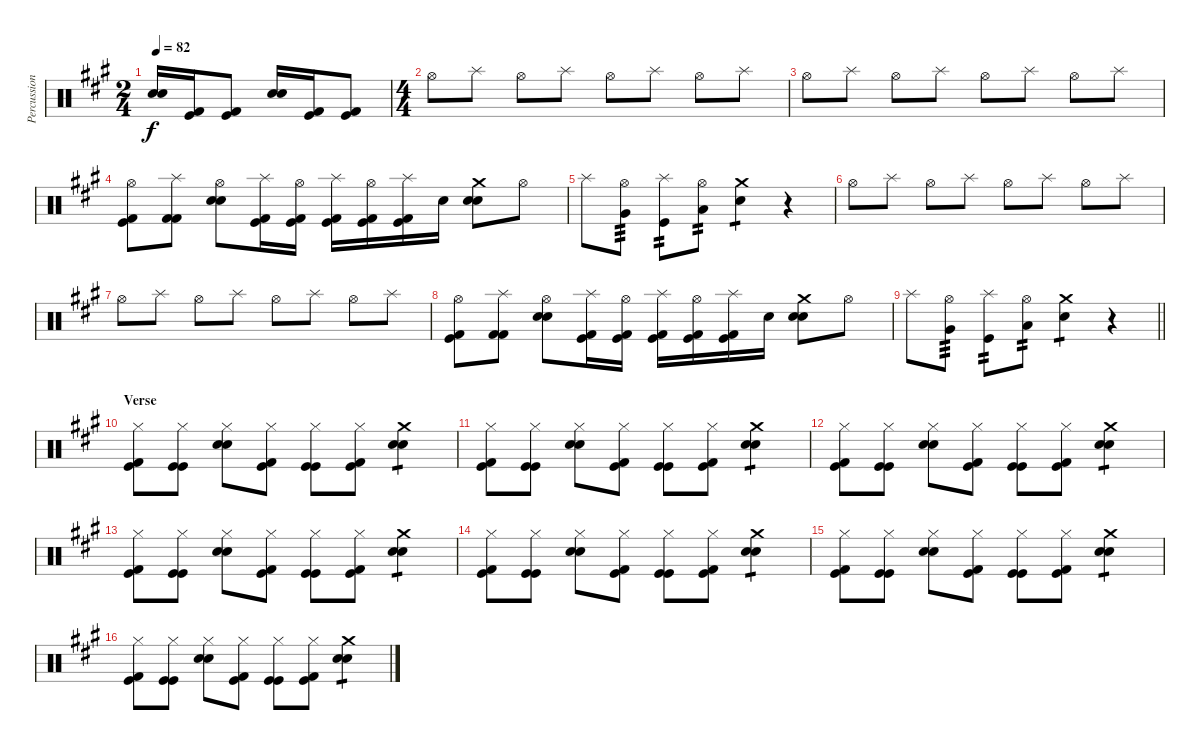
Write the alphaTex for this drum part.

\track ("Percussion" "Percussion") {instrument percussion}
\staff {score}
\articulation defaults
\ts (2 4)
\tempo 82
\clef neutral
\ks a
("Electric Snare (hit)" "Snare (hit) 2").16{dy f} ("Kick (hit) 2" "Kick (hit)").16 ("Kick (hit) 2" "Kick (hit)").8 ("Electric Snare (hit)" "Snare (hit) 2").16 ("Kick (hit) 2" "Kick (hit)").16 ("Kick (hit) 2" "Kick (hit)").8 |
\ts (4 4)
"Hi-Hat (open)".8 "Splash (hit)".8 "Hi-Hat (open)".8 "Splash (hit)".8 "Hi-Hat (open)".8 "Splash (hit)".8 "Hi-Hat (open)".8 "Splash (hit)".8 |
"Hi-Hat (open)".8 "Splash (hit)".8 "Hi-Hat (open)".8 "Splash (hit)".8 "Hi-Hat (open)".8 "Splash (hit)".8 "Hi-Hat (open)".8 "Splash (hit)".8 |
("Hi-Hat (open)" "Kick (hit) 2" "Kick (hit)").8 ("Splash (hit)" "Kick (hit) 2" "Kick (hit) 2").8 ("Hi-Hat (open)" "Electric Snare (hit)" "Snare (hit) 2").8 ("Splash (hit)" "Kick (hit) 2" "Kick (hit)").16 ("Hi-Hat (open)" "Kick (hit) 2" "Kick (hit)").16 ("Splash (hit)" "Kick (hit) 2" "Kick (hit)").16 ("Hi-Hat (open)" "Kick (hit) 2" "Kick (hit)").16 ("Splash (hit)" "Kick (hit) 2" "Kick (hit)").16 "Snare (hit)".16 ("Crash medium (hit)" "Electric Snare (hit)" "Snare (hit) 2").8 "Hi-Hat (open)".8 |
"Splash (hit)".8 ("Hi-Hat (open)" "Very Low Tom (hit)").8{tp 3} ("Splash (hit)" "Kick (hit)").8{tp 2} ("Hi-Hat (open)" "Low Floor Tom (hit)").8{tp 2} ("Crash medium (hit)" "Electric Snare (hit)").4{tp 1} r.4 |
"Hi-Hat (open)".8 "Splash (hit)".8 "Hi-Hat (open)".8 "Splash (hit)".8 "Hi-Hat (open)".8 "Splash (hit)".8 "Hi-Hat (open)".8 "Splash (hit)".8 |
"Hi-Hat (open)".8 "Splash (hit)".8 "Hi-Hat (open)".8 "Splash (hit)".8 "Hi-Hat (open)".8 "Splash (hit)".8 "Hi-Hat (open)".8 "Splash (hit)".8 |
("Hi-Hat (open)" "Kick (hit) 2" "Kick (hit)").8 ("Splash (hit)" "Kick (hit) 2" "Kick (hit) 2").8 ("Hi-Hat (open)" "Electric Snare (hit)" "Snare (hit) 2").8 ("Splash (hit)" "Kick (hit) 2" "Kick (hit)").16 ("Hi-Hat (open)" "Kick (hit) 2" "Kick (hit)").16 ("Splash (hit)" "Kick (hit) 2" "Kick (hit)").16 ("Hi-Hat (open)" "Kick (hit) 2" "Kick (hit)").16 ("Splash (hit)" "Kick (hit) 2" "Kick (hit)").16 "Snare (hit)".16 ("Crash medium (hit)" "Electric Snare (hit)" "Snare (hit) 2").8 "Hi-Hat (open)".8 |
\barLineRight lightlight "Splash (hit)".8
("Hi-Hat (open)" "Very Low Tom (hit)").8{tp 3} ("Splash (hit)" "Kick (hit)").8{tp 2} ("Hi-Hat (open)" "Low Floor Tom (hit)").8{tp 2} ("Crash medium (hit)" "Electric Snare (hit)").4{tp 1} r.4 |
\section ("" "Verse")
("Hi-Hat (closed)" "Kick (hit)" "Kick (hit) 2").8 ("Hi-Hat (closed)" "Kick (hit)" "Kick (hit)").8 ("Hi-Hat (closed)" "Electric Snare (hit)" "Snare (hit) 2").8 ("Hi-Hat (closed)" "Kick (hit)" "Kick (hit) 2").8 ("Hi-Hat (closed)" "Kick (hit)" "Kick (hit)").8 ("Hi-Hat (closed)" "Kick (hit)" "Kick (hit) 2").8 ("Crash medium (hit)" "Electric Snare (hit)" "Snare (hit) 2").4{tp 1} |
("Hi-Hat (closed)" "Kick (hit)" "Kick (hit) 2").8 ("Hi-Hat (closed)" "Kick (hit)" "Kick (hit)").8 ("Hi-Hat (closed)" "Electric Snare (hit)" "Snare (hit) 2").8 ("Hi-Hat (closed)" "Kick (hit)" "Kick (hit) 2").8 ("Hi-Hat (closed)" "Kick (hit)" "Kick (hit)").8 ("Hi-Hat (closed)" "Kick (hit)" "Kick (hit) 2").8 ("Crash medium (hit)" "Electric Snare (hit)" "Snare (hit) 2").4{tp 1} |
("Hi-Hat (closed)" "Kick (hit)" "Kick (hit) 2").8 ("Hi-Hat (closed)" "Kick (hit)" "Kick (hit)").8 ("Hi-Hat (closed)" "Electric Snare (hit)" "Snare (hit) 2").8 ("Hi-Hat (closed)" "Kick (hit)" "Kick (hit) 2").8 ("Hi-Hat (closed)" "Kick (hit)" "Kick (hit)").8 ("Hi-Hat (closed)" "Kick (hit)" "Kick (hit) 2").8 ("Crash medium (hit)" "Electric Snare (hit)" "Snare (hit) 2").4{tp 1} |
("Hi-Hat (closed)" "Kick (hit)" "Kick (hit) 2").8 ("Hi-Hat (closed)" "Kick (hit)" "Kick (hit)").8 ("Hi-Hat (closed)" "Electric Snare (hit)" "Snare (hit) 2").8 ("Hi-Hat (closed)" "Kick (hit)" "Kick (hit) 2").8 ("Hi-Hat (closed)" "Kick (hit)" "Kick (hit)").8 ("Hi-Hat (closed)" "Kick (hit)" "Kick (hit) 2").8 ("Crash medium (hit)" "Electric Snare (hit)" "Snare (hit) 2").4{tp 1} |
("Hi-Hat (closed)" "Kick (hit)" "Kick (hit) 2").8 ("Hi-Hat (closed)" "Kick (hit)" "Kick (hit)").8 ("Hi-Hat (closed)" "Electric Snare (hit)" "Snare (hit) 2").8 ("Hi-Hat (closed)" "Kick (hit)" "Kick (hit) 2").8 ("Hi-Hat (closed)" "Kick (hit)" "Kick (hit)").8 ("Hi-Hat (closed)" "Kick (hit)" "Kick (hit) 2").8 ("Crash medium (hit)" "Electric Snare (hit)" "Snare (hit) 2").4{tp 1} |
("Hi-Hat (closed)" "Kick (hit)" "Kick (hit) 2").8 ("Hi-Hat (closed)" "Kick (hit)" "Kick (hit)").8 ("Hi-Hat (closed)" "Electric Snare (hit)" "Snare (hit) 2").8 ("Hi-Hat (closed)" "Kick (hit)" "Kick (hit) 2").8 ("Hi-Hat (closed)" "Kick (hit)" "Kick (hit)").8 ("Hi-Hat (closed)" "Kick (hit)" "Kick (hit) 2").8 ("Crash medium (hit)" "Electric Snare (hit)" "Snare (hit) 2").4{tp 1} |
("Hi-Hat (closed)" "Kick (hit)" "Kick (hit) 2").8 ("Hi-Hat (closed)" "Kick (hit)" "Kick (hit)").8 ("Hi-Hat (closed)" "Electric Snare (hit)" "Snare (hit) 2").8 ("Hi-Hat (closed)" "Kick (hit)" "Kick (hit) 2").8 ("Hi-Hat (closed)" "Kick (hit)" "Kick (hit)").8 ("Hi-Hat (closed)" "Kick (hit)" "Kick (hit) 2").8 ("Crash medium (hit)" "Electric Snare (hit)" "Snare (hit) 2").4{tp 1}
